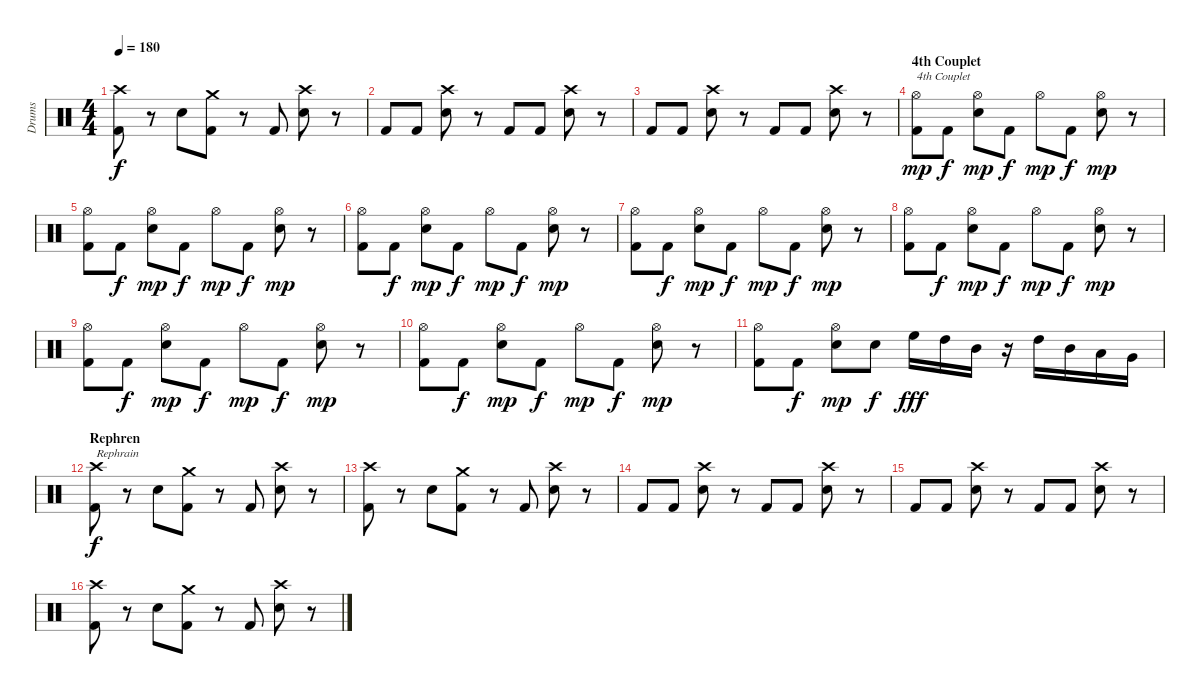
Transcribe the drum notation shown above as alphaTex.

\track ("Drums" "Drums") {instrument percussion}
\staff {score}
\articulation defaults
\ts (4 4)
\tempo 180
\clef neutral
\ks c
("Crash high (hit)" "Kick (hit) 2").8{dy f} r.8 "Electric Snare (hit)".8 ("Crash medium (hit)" "Kick (hit) 2").8 r.8 "Kick (hit) 2".8 ("Crash high (hit)" "Electric Snare (hit)").8 r.8 |
"Kick (hit) 2".8 "Kick (hit) 2".8 ("Crash high (hit)" "Electric Snare (hit)").8 r.8 "Kick (hit) 2".8 "Kick (hit) 2".8 ("Crash high (hit)" "Electric Snare (hit)").8 r.8 |
"Kick (hit) 2".8 "Kick (hit) 2".8 ("Crash high (hit)" "Electric Snare (hit)").8 r.8 "Kick (hit) 2".8 "Kick (hit) 2".8 ("Crash high (hit)" "Electric Snare (hit)").8 r.8 |
\section ("" "4th Couplet")
("Hi-Hat (open)" "Kick (hit) 2").8{txt "4th Couplet " dy mp} "Kick (hit) 2".8{dy f} ("Hi-Hat (open)" "Electric Snare (hit)").8{dy mp} "Kick (hit) 2".8{dy f} "Hi-Hat (open)".8{dy mp} "Kick (hit) 2".8{dy f} ("Hi-Hat (open)" "Electric Snare (hit)").8{dy mp} r.8 |
("Hi-Hat (open)" "Kick (hit) 2").8 "Kick (hit) 2".8{dy f} ("Hi-Hat (open)" "Electric Snare (hit)").8{dy mp} "Kick (hit) 2".8{dy f} "Hi-Hat (open)".8{dy mp} "Kick (hit) 2".8{dy f} ("Hi-Hat (open)" "Electric Snare (hit)").8{dy mp} r.8 |
("Hi-Hat (open)" "Kick (hit) 2").8 "Kick (hit) 2".8{dy f} ("Hi-Hat (open)" "Electric Snare (hit)").8{dy mp} "Kick (hit) 2".8{dy f} "Hi-Hat (open)".8{dy mp} "Kick (hit) 2".8{dy f} ("Hi-Hat (open)" "Electric Snare (hit)").8{dy mp} r.8 |
("Hi-Hat (open)" "Kick (hit) 2").8 "Kick (hit) 2".8{dy f} ("Hi-Hat (open)" "Electric Snare (hit)").8{dy mp} "Kick (hit) 2".8{dy f} "Hi-Hat (open)".8{dy mp} "Kick (hit) 2".8{dy f} ("Hi-Hat (open)" "Electric Snare (hit)").8{dy mp} r.8 |
("Hi-Hat (open)" "Kick (hit) 2").8 "Kick (hit) 2".8{dy f} ("Hi-Hat (open)" "Electric Snare (hit)").8{dy mp} "Kick (hit) 2".8{dy f} "Hi-Hat (open)".8{dy mp} "Kick (hit) 2".8{dy f} ("Hi-Hat (open)" "Electric Snare (hit)").8{dy mp} r.8 |
("Hi-Hat (open)" "Kick (hit) 2").8 "Kick (hit) 2".8{dy f} ("Hi-Hat (open)" "Electric Snare (hit)").8{dy mp} "Kick (hit) 2".8{dy f} "Hi-Hat (open)".8{dy mp} "Kick (hit) 2".8{dy f} ("Hi-Hat (open)" "Electric Snare (hit)").8{dy mp} r.8 |
("Hi-Hat (open)" "Kick (hit) 2").8 "Kick (hit) 2".8{dy f} ("Hi-Hat (open)" "Electric Snare (hit)").8{dy mp} "Kick (hit) 2".8{dy f} "Hi-Hat (open)".8{dy mp} "Kick (hit) 2".8{dy f} ("Hi-Hat (open)" "Electric Snare (hit)").8{dy mp} r.8 |
("Hi-Hat (open)" "Kick (hit) 2").8 "Kick (hit) 2".8{dy f} ("Hi-Hat (open)" "Electric Snare (hit)").8{dy mp} "Snare (hit) 2".8{dy f} "High Floor Tom (hit)".16{dy fff} "High Tom (hit)".16 "Mid Tom (hit)".16 r.16 "High Tom (hit)".16 "Mid Tom (hit)".16 "Low Tom (hit)".16 "Very Low Tom (hit)".16 |
\section ("" "Rephren")
("Crash high (hit)" "Kick (hit) 2").8{txt "Rephrain" dy f} r.8 "Electric Snare (hit)".8 ("Crash medium (hit)" "Kick (hit) 2").8 r.8 "Kick (hit) 2".8 ("Crash high (hit)" "Electric Snare (hit)").8 r.8 |
("Crash high (hit)" "Kick (hit) 2").8 r.8 "Electric Snare (hit)".8 ("Crash medium (hit)" "Kick (hit) 2").8 r.8 "Kick (hit) 2".8 ("Crash high (hit)" "Electric Snare (hit)").8 r.8 |
"Kick (hit) 2".8 "Kick (hit) 2".8 ("Crash high (hit)" "Electric Snare (hit)").8 r.8 "Kick (hit) 2".8 "Kick (hit) 2".8 ("Crash high (hit)" "Electric Snare (hit)").8 r.8 |
"Kick (hit) 2".8 "Kick (hit) 2".8 ("Crash high (hit)" "Electric Snare (hit)").8 r.8 "Kick (hit) 2".8 "Kick (hit) 2".8 ("Crash high (hit)" "Electric Snare (hit)").8 r.8 |
("Crash high (hit)" "Kick (hit) 2").8 r.8 "Electric Snare (hit)".8 ("Crash medium (hit)" "Kick (hit) 2").8 r.8 "Kick (hit) 2".8 ("Crash high (hit)" "Electric Snare (hit)").8 r.8
